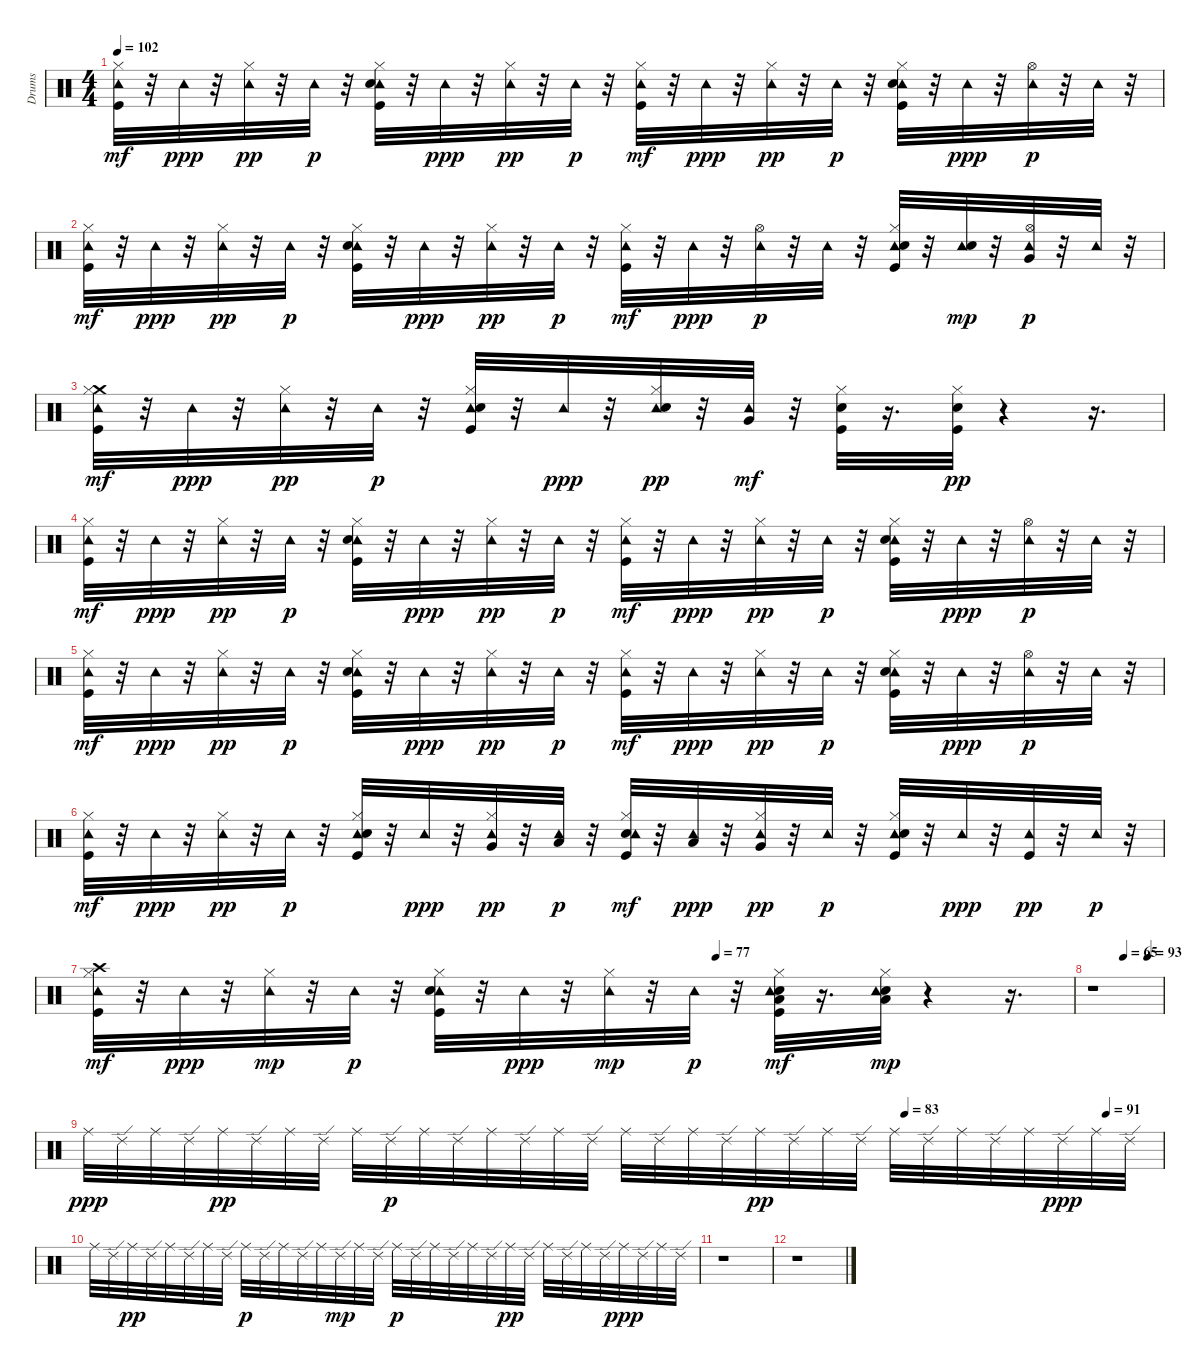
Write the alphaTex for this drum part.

\track ("Drums" "Drums") {instrument percussion}
\staff {score}
\articulation defaults
\ts (4 4)
\tempo 102
\clef neutral
\ks c
("Tambourine (hit)" "Hi-Hat (closed)" "Kick (hit)").32{dy mf} r.32 "Tambourine (hit)".32{dy ppp} r.32 ("Tambourine (hit)" "Hi-Hat (closed)").32{dy pp} r.32 "Tambourine (hit)".32{dy p} r.32 ("Tambourine (hit)" "Hi-Hat (closed)" "Electric Snare (hit)" "Kick (hit)").32 r.32 "Tambourine (hit)".32{dy ppp} r.32 ("Tambourine (hit)" "Hi-Hat (closed)").32{dy pp} r.32 "Tambourine (hit)".32{dy p} r.32 ("Tambourine (hit)" "Hi-Hat (closed)" "Kick (hit)").32{dy mf} r.32 "Tambourine (hit)".32{dy ppp} r.32 ("Tambourine (hit)" "Hi-Hat (closed)").32{dy pp} r.32 "Tambourine (hit)".32{dy p} r.32 ("Tambourine (hit)" "Hi-Hat (closed)" "Electric Snare (hit)" "Kick (hit)").32 r.32 "Tambourine (hit)".32{dy ppp} r.32 ("Tambourine (hit)" "Hi-Hat (open)").32{dy p} r.32 "Tambourine (hit)".32 r.32 |
("Tambourine (hit)" "Hi-Hat (closed)" "Kick (hit)").32{dy mf} r.32 "Tambourine (hit)".32{dy ppp} r.32 ("Tambourine (hit)" "Hi-Hat (closed)").32{dy pp} r.32 "Tambourine (hit)".32{dy p} r.32 ("Tambourine (hit)" "Hi-Hat (closed)" "Electric Snare (hit)" "Kick (hit)").32 r.32 "Tambourine (hit)".32{dy ppp} r.32 ("Tambourine (hit)" "Hi-Hat (closed)").32{dy pp} r.32 "Tambourine (hit)".32{dy p} r.32 ("Tambourine (hit)" "Hi-Hat (closed)" "Kick (hit)").32{dy mf} r.32 "Tambourine (hit)".32{dy ppp} r.32 ("Tambourine (hit)" "Hi-Hat (open)").32{dy p} r.32 "Tambourine (hit)".32 r.32 ("Tambourine (hit)" "Hi-Hat (closed)" "Electric Snare (hit)" "Kick (hit)").32 r.32 ("Tambourine (hit)" "Electric Snare (hit)").32{dy mp} r.32 ("Tambourine (hit)" "Very Low Tom (hit)" "Hi-Hat (open)").32{dy p} r.32 "Tambourine (hit)".32 r.32 |
("Crash medium (hit)" "Tambourine (hit)" "Hi-Hat (closed)" "Kick (hit)").32{dy mf} r.32 "Tambourine (hit)".32{dy ppp} r.32 ("Tambourine (hit)" "Hi-Hat (closed)").32{dy pp} r.32 "Tambourine (hit)".32{dy p} r.32 ("Tambourine (hit)" "Hi-Hat (closed)" "Electric Snare (hit)" "Kick (hit)").32 r.32 "Tambourine (hit)".32{dy ppp} r.32 ("Tambourine (hit)" "Electric Snare (hit)" "Hi-Hat (closed)").32{dy pp} r.32 ("Tambourine (hit)" "Very Low Tom (hit)").32{dy mf} r.32 ("Electric Snare (hit)" "Hi-Hat (closed)" "Kick (hit)").32 r.16{d} ("Kick (hit)" "Electric Snare (hit)" "Hi-Hat (closed)").32{dy pp} r.4 r.16{d} |
("Tambourine (hit)" "Hi-Hat (closed)" "Kick (hit)").32{dy mf} r.32 "Tambourine (hit)".32{dy ppp} r.32 ("Tambourine (hit)" "Hi-Hat (closed)").32{dy pp} r.32 "Tambourine (hit)".32{dy p} r.32 ("Tambourine (hit)" "Hi-Hat (closed)" "Electric Snare (hit)" "Kick (hit)").32 r.32 "Tambourine (hit)".32{dy ppp} r.32 ("Tambourine (hit)" "Hi-Hat (closed)").32{dy pp} r.32 "Tambourine (hit)".32{dy p} r.32 ("Tambourine (hit)" "Hi-Hat (closed)" "Kick (hit)").32{dy mf} r.32 "Tambourine (hit)".32{dy ppp} r.32 ("Tambourine (hit)" "Hi-Hat (closed)").32{dy pp} r.32 "Tambourine (hit)".32{dy p} r.32 ("Tambourine (hit)" "Hi-Hat (closed)" "Electric Snare (hit)" "Kick (hit)").32 r.32 "Tambourine (hit)".32{dy ppp} r.32 ("Tambourine (hit)" "Hi-Hat (open)").32{dy p} r.32 "Tambourine (hit)".32 r.32 |
("Tambourine (hit)" "Hi-Hat (closed)" "Kick (hit)").32{dy mf} r.32 "Tambourine (hit)".32{dy ppp} r.32 ("Tambourine (hit)" "Hi-Hat (closed)").32{dy pp} r.32 "Tambourine (hit)".32{dy p} r.32 ("Tambourine (hit)" "Hi-Hat (closed)" "Electric Snare (hit)" "Kick (hit)").32 r.32 "Tambourine (hit)".32{dy ppp} r.32 ("Tambourine (hit)" "Hi-Hat (closed)").32{dy pp} r.32 "Tambourine (hit)".32{dy p} r.32 ("Tambourine (hit)" "Hi-Hat (closed)" "Kick (hit)").32{dy mf} r.32 "Tambourine (hit)".32{dy ppp} r.32 ("Tambourine (hit)" "Hi-Hat (closed)").32{dy pp} r.32 "Tambourine (hit)".32{dy p} r.32 ("Tambourine (hit)" "Hi-Hat (closed)" "Electric Snare (hit)" "Kick (hit)").32 r.32 "Tambourine (hit)".32{dy ppp} r.32 ("Tambourine (hit)" "Hi-Hat (open)").32{dy p} r.32 "Tambourine (hit)".32 r.32 |
("Tambourine (hit)" "Hi-Hat (closed)" "Kick (hit)").32{dy mf} r.32 "Tambourine (hit)".32{dy ppp} r.32 ("Tambourine (hit)" "Hi-Hat (closed)").32{dy pp} r.32 "Tambourine (hit)".32{dy p} r.32 ("Tambourine (hit)" "Hi-Hat (closed)" "Electric Snare (hit)" "Kick (hit)").32 r.32 "Tambourine (hit)".32{dy ppp} r.32 ("Very Low Tom (hit)" "Tambourine (hit)" "Hi-Hat (closed)").32{dy pp} r.32 ("Low Floor Tom (hit)" "Tambourine (hit)").32{dy p} r.32 ("Electric Snare (hit)" "Tambourine (hit)" "Hi-Hat (closed)" "Kick (hit)").32{dy mf} r.32 ("Low Tom (hit)" "Tambourine (hit)").32{dy ppp} r.32 ("Very Low Tom (hit)" "Tambourine (hit)" "Hi-Hat (closed)").32{dy pp} r.32 "Tambourine (hit)".32{dy p} r.32 ("Tambourine (hit)" "Hi-Hat (closed)" "Electric Snare (hit)" "Kick (hit)").32 r.32 "Tambourine (hit)".32{dy ppp} r.32 ("Kick (hit)" "Tambourine (hit)").32{dy pp} r.32 "Tambourine (hit)".32{dy p} r.32 |
\tempo (77 0.6354166666666666)
("Crash high (hit)" "Tambourine (hit)" "Hi-Hat (closed)" "Kick (hit)").32{dy mf} r.32 "Tambourine (hit)".32{dy ppp} r.32 ("Tambourine (hit)" "Hi-Hat (closed)").32{dy mp} r.32 "Tambourine (hit)".32{dy p} r.32 ("Tambourine (hit)" "Hi-Hat (closed)" "Electric Snare (hit)" "Kick (hit)").32 r.32 "Tambourine (hit)".32{dy ppp} r.32 ("Tambourine (hit)" "Hi-Hat (closed)").32{dy mp} r.32 "Tambourine (hit)".32{dy p} r.32 ("Low Floor Tom (hit)" "Electric Snare (hit)" "Tambourine (hit)" "Hi-Hat (closed)" "Kick (hit)").32{dy mf} r.16{d} ("Low Floor Tom (hit)" "Electric Snare (hit)" "Tambourine (hit)" "Hi-Hat (closed)").32{dy mp} r.4 r.16{d} |
\tempo (65 0.4479166666666667)
\tempo (93 0.7916666666666666)
r.1 |
\tempo (83 0.7604166666666666)
\tempo (91 0.9479166666666666)
"Ride (middle)".32{dy ppp} "Ride (edge) 2".32 "Ride (middle)".32 "Ride (edge) 2".32 "Ride (middle)".32{dy pp} "Ride (edge) 2".32 "Ride (middle)".32 "Ride (edge) 2".32 "Ride (middle)".32 "Ride (edge) 2".32{dy p} "Ride (middle)".32 "Ride (edge) 2".32 "Ride (middle)".32 "Ride (edge) 2".32 "Ride (middle)".32 "Ride (edge) 2".32 "Ride (middle)".32 "Ride (edge) 2".32 "Ride (middle)".32 "Ride (edge) 2".32 "Ride (middle)".32{dy pp} "Ride (edge) 2".32 "Ride (middle)".32 "Ride (edge) 2".32 "Ride (middle)".32 "Ride (edge) 2".32 "Ride (middle)".32 "Ride (edge) 2".32 "Ride (middle)".32 "Ride (edge) 2".32{dy ppp} "Ride (middle)".32 "Ride (edge) 2".32 |
"Ride (middle)".32 "Ride (edge) 2".32 "Ride (middle)".32{dy pp} "Ride (edge) 2".32 "Ride (middle)".32 "Ride (edge) 2".32 "Ride (middle)".32 "Ride (edge) 2".32 "Ride (middle)".32{dy p} "Ride (edge) 2".32 "Ride (middle)".32 "Ride (edge) 2".32 "Ride (middle)".32 "Ride (edge) 2".32{dy mp} "Ride (middle)".32 "Ride (edge) 2".32 "Ride (middle)".32{dy p} "Ride (edge) 2".32 "Ride (middle)".32 "Ride (edge) 2".32 "Ride (middle)".32 "Ride (edge) 2".32 "Ride (middle)".32{dy pp} "Ride (edge) 2".32 "Ride (middle)".32 "Ride (edge) 2".32 "Ride (middle)".32 "Ride (edge) 2".32 "Ride (middle)".32{dy ppp} "Ride (edge) 2".32 "Ride (middle)".32 "Ride (edge) 2".32 |
r.1 |
r.1
